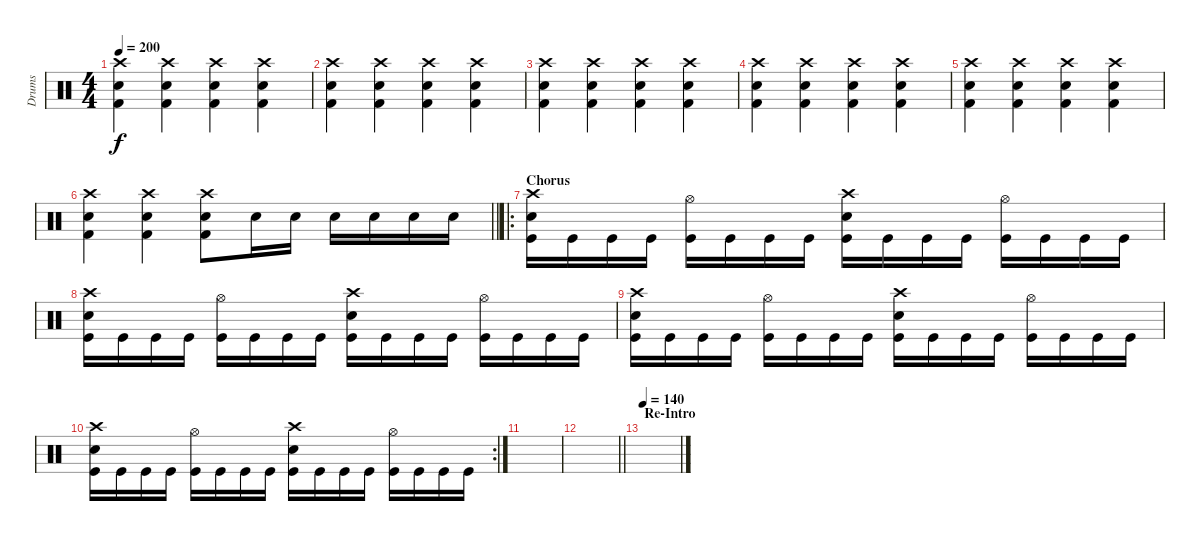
\track ("Drums" "Drums") {instrument percussion}
\staff {score}
\articulation defaults
\ts (4 4)
\tempo 200
\clef neutral
\ks c
("Crash high (hit)" "Electric Snare (hit)" "Kick (hit) 2").4{dy f} ("Crash high (hit)" "Electric Snare (hit)" "Kick (hit) 2").4 ("Crash high (hit)" "Electric Snare (hit)" "Kick (hit) 2").4 ("Crash high (hit)" "Electric Snare (hit)" "Kick (hit) 2").4 |
("Crash high (hit)" "Electric Snare (hit)" "Kick (hit) 2").4 ("Crash high (hit)" "Electric Snare (hit)" "Kick (hit) 2").4 ("Crash high (hit)" "Electric Snare (hit)" "Kick (hit) 2").4 ("Crash high (hit)" "Electric Snare (hit)" "Kick (hit) 2").4 |
("Crash high (hit)" "Electric Snare (hit)" "Kick (hit) 2").4 ("Crash high (hit)" "Electric Snare (hit)" "Kick (hit) 2").4 ("Crash high (hit)" "Electric Snare (hit)" "Kick (hit) 2").4 ("Crash high (hit)" "Electric Snare (hit)" "Kick (hit) 2").4 |
("Crash high (hit)" "Electric Snare (hit)" "Kick (hit) 2").4 ("Crash high (hit)" "Electric Snare (hit)" "Kick (hit) 2").4 ("Crash high (hit)" "Electric Snare (hit)" "Kick (hit) 2").4 ("Crash high (hit)" "Electric Snare (hit)" "Kick (hit) 2").4 |
("Crash high (hit)" "Electric Snare (hit)" "Kick (hit) 2").4 ("Crash high (hit)" "Electric Snare (hit)" "Kick (hit) 2").4 ("Crash high (hit)" "Electric Snare (hit)" "Kick (hit) 2").4 ("Crash high (hit)" "Electric Snare (hit)" "Kick (hit) 2").4 |
\barLineRight lightlight
("Crash high (hit)" "Electric Snare (hit)" "Kick (hit) 2").4 ("Crash high (hit)" "Electric Snare (hit)" "Kick (hit) 2").4 ("Crash high (hit)" "Electric Snare (hit)" "Kick (hit) 2").8 "Snare (hit) 2".16 "Snare (hit) 2".16 "Snare (hit) 2".16 "Snare (hit) 2".16 "Snare (hit) 2".16 "Snare (hit) 2".16 |
\ro
\section ("" "Chorus")
("Crash high (hit)" "Snare (hit) 2" "Kick (hit)").16 "Kick (hit)".16 "Kick (hit)".16 "Kick (hit)".16 ("Hi-Hat (open)" "Kick (hit)").16 "Kick (hit)".16 "Kick (hit)".16 "Kick (hit)".16 ("Crash high (hit)" "Snare (hit) 2" "Kick (hit)").16 "Kick (hit)".16 "Kick (hit)".16 "Kick (hit)".16 ("Hi-Hat (open)" "Kick (hit)").16 "Kick (hit)".16 "Kick (hit)".16 "Kick (hit)".16 |
("Crash high (hit)" "Snare (hit) 2" "Kick (hit)").16 "Kick (hit)".16 "Kick (hit)".16 "Kick (hit)".16 ("Hi-Hat (open)" "Kick (hit)").16 "Kick (hit)".16 "Kick (hit)".16 "Kick (hit)".16 ("Crash high (hit)" "Snare (hit) 2" "Kick (hit)").16 "Kick (hit)".16 "Kick (hit)".16 "Kick (hit)".16 ("Hi-Hat (open)" "Kick (hit)").16 "Kick (hit)".16 "Kick (hit)".16 "Kick (hit)".16 |
("Crash high (hit)" "Snare (hit) 2" "Kick (hit)").16 "Kick (hit)".16 "Kick (hit)".16 "Kick (hit)".16 ("Hi-Hat (open)" "Kick (hit)").16 "Kick (hit)".16 "Kick (hit)".16 "Kick (hit)".16 ("Crash high (hit)" "Snare (hit) 2" "Kick (hit)").16 "Kick (hit)".16 "Kick (hit)".16 "Kick (hit)".16 ("Hi-Hat (open)" "Kick (hit)").16 "Kick (hit)".16 "Kick (hit)".16 "Kick (hit)".16 |
\rc 2
("Crash high (hit)" "Snare (hit) 2" "Kick (hit)").16 "Kick (hit)".16 "Kick (hit)".16 "Kick (hit)".16 ("Hi-Hat (open)" "Kick (hit)").16 "Kick (hit)".16 "Kick (hit)".16 "Kick (hit)".16 ("Crash high (hit)" "Snare (hit) 2" "Kick (hit)").16 "Kick (hit)".16 "Kick (hit)".16 "Kick (hit)".16 ("Hi-Hat (open)" "Kick (hit)").16 "Kick (hit)".16 "Kick (hit)".16 "Kick (hit)".16 |
|
\barLineRight lightlight
|
\section ("" "Re-Intro")
\tempo 140
